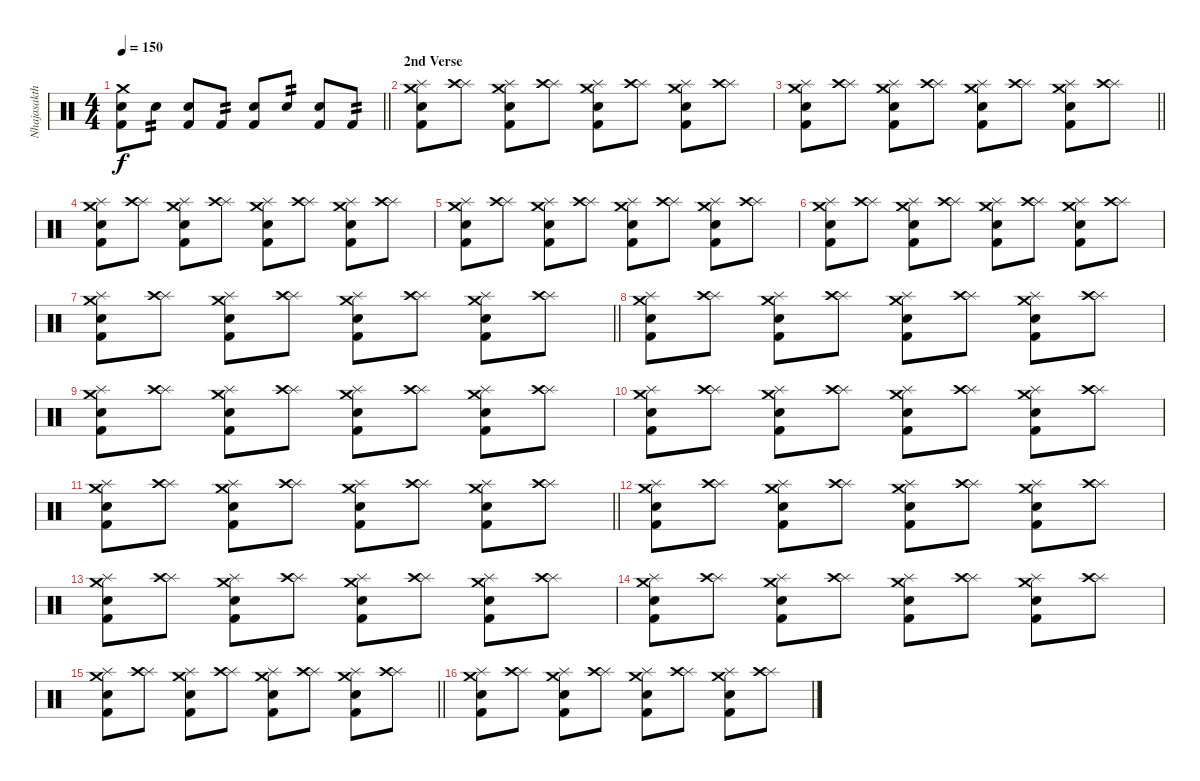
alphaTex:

\track ("Nhajasakthee" "Nhajasakth") {instrument percussion}
\staff {score}
\articulation defaults
\ts (4 4)
\tempo 150
\clef neutral
\barLineRight lightlight
\ks c
("Crash medium (hit)" "Kick (hit) 2" "Electric Snare (hit)").8{dy f} "Electric Snare (hit)".8{tp 2} ("Kick (hit) 2" "Electric Snare (hit)").8 "Kick (hit) 2".8{tp 2} ("Kick (hit) 2" "Electric Snare (hit)").8 "Electric Snare (hit)".8{tp 2} ("Kick (hit) 2" "Electric Snare (hit)").8 "Kick (hit) 2".8{tp 2} |
\section ("" "2nd Verse")
("Splash (hit)" "Crash medium (hit)" "Kick (hit) 2" "Electric Snare (hit)").8 ("Splash (hit)" "Crash high (hit)").8 ("Splash (hit)" "Crash medium (hit)" "Kick (hit) 2" "Electric Snare (hit)").8 ("Splash (hit)" "Crash high (hit)").8 ("Splash (hit)" "Crash medium (hit)" "Kick (hit) 2" "Electric Snare (hit)").8 ("Splash (hit)" "Crash high (hit)").8 ("Splash (hit)" "Crash medium (hit)" "Kick (hit) 2" "Electric Snare (hit)").8 ("Splash (hit)" "Crash high (hit)").8 |
\barLineRight lightlight
("Splash (hit)" "Crash medium (hit)" "Kick (hit) 2" "Electric Snare (hit)").8 ("Splash (hit)" "Crash high (hit)").8 ("Splash (hit)" "Crash medium (hit)" "Kick (hit) 2" "Electric Snare (hit)").8 ("Splash (hit)" "Crash high (hit)").8 ("Splash (hit)" "Crash medium (hit)" "Kick (hit) 2" "Electric Snare (hit)").8 ("Splash (hit)" "Crash high (hit)").8 ("Splash (hit)" "Crash medium (hit)" "Kick (hit) 2" "Electric Snare (hit)").8 ("Splash (hit)" "Crash high (hit)").8 |
("Splash (hit)" "Crash medium (hit)" "Kick (hit) 2" "Electric Snare (hit)").8 ("Splash (hit)" "Crash high (hit)").8 ("Splash (hit)" "Crash medium (hit)" "Kick (hit) 2" "Electric Snare (hit)").8 ("Splash (hit)" "Crash high (hit)").8 ("Splash (hit)" "Crash medium (hit)" "Kick (hit) 2" "Electric Snare (hit)").8 ("Splash (hit)" "Crash high (hit)").8 ("Splash (hit)" "Crash medium (hit)" "Kick (hit) 2" "Electric Snare (hit)").8 ("Splash (hit)" "Crash high (hit)").8 |
("Splash (hit)" "Crash medium (hit)" "Kick (hit) 2" "Electric Snare (hit)").8 ("Splash (hit)" "Crash high (hit)").8 ("Splash (hit)" "Crash medium (hit)" "Kick (hit) 2" "Electric Snare (hit)").8 ("Splash (hit)" "Crash high (hit)").8 ("Splash (hit)" "Crash medium (hit)" "Kick (hit) 2" "Electric Snare (hit)").8 ("Splash (hit)" "Crash high (hit)").8 ("Splash (hit)" "Crash medium (hit)" "Kick (hit) 2" "Electric Snare (hit)").8 ("Splash (hit)" "Crash high (hit)").8 |
("Splash (hit)" "Crash medium (hit)" "Kick (hit) 2" "Electric Snare (hit)").8 ("Splash (hit)" "Crash high (hit)").8 ("Splash (hit)" "Crash medium (hit)" "Kick (hit) 2" "Electric Snare (hit)").8 ("Splash (hit)" "Crash high (hit)").8 ("Splash (hit)" "Crash medium (hit)" "Kick (hit) 2" "Electric Snare (hit)").8 ("Splash (hit)" "Crash high (hit)").8 ("Splash (hit)" "Crash medium (hit)" "Kick (hit) 2" "Electric Snare (hit)").8 ("Splash (hit)" "Crash high (hit)").8 |
\barLineRight lightlight
("Splash (hit)" "Crash medium (hit)" "Kick (hit) 2" "Electric Snare (hit)").8 ("Splash (hit)" "Crash high (hit)").8 ("Splash (hit)" "Crash medium (hit)" "Kick (hit) 2" "Electric Snare (hit)").8 ("Splash (hit)" "Crash high (hit)").8 ("Splash (hit)" "Crash medium (hit)" "Kick (hit) 2" "Electric Snare (hit)").8 ("Splash (hit)" "Crash high (hit)").8 ("Splash (hit)" "Crash medium (hit)" "Kick (hit) 2" "Electric Snare (hit)").8 ("Splash (hit)" "Crash high (hit)").8 |
("Splash (hit)" "Crash medium (hit)" "Kick (hit) 2" "Electric Snare (hit)").8 ("Splash (hit)" "Crash high (hit)").8 ("Splash (hit)" "Crash medium (hit)" "Kick (hit) 2" "Electric Snare (hit)").8 ("Splash (hit)" "Crash high (hit)").8 ("Splash (hit)" "Crash medium (hit)" "Kick (hit) 2" "Electric Snare (hit)").8 ("Splash (hit)" "Crash high (hit)").8 ("Splash (hit)" "Crash medium (hit)" "Kick (hit) 2" "Electric Snare (hit)").8 ("Splash (hit)" "Crash high (hit)").8 |
("Splash (hit)" "Crash medium (hit)" "Kick (hit) 2" "Electric Snare (hit)").8 ("Splash (hit)" "Crash high (hit)").8 ("Splash (hit)" "Crash medium (hit)" "Kick (hit) 2" "Electric Snare (hit)").8 ("Splash (hit)" "Crash high (hit)").8 ("Splash (hit)" "Crash medium (hit)" "Kick (hit) 2" "Electric Snare (hit)").8 ("Splash (hit)" "Crash high (hit)").8 ("Splash (hit)" "Crash medium (hit)" "Kick (hit) 2" "Electric Snare (hit)").8 ("Splash (hit)" "Crash high (hit)").8 |
("Splash (hit)" "Crash medium (hit)" "Kick (hit) 2" "Electric Snare (hit)").8 ("Splash (hit)" "Crash high (hit)").8 ("Splash (hit)" "Crash medium (hit)" "Kick (hit) 2" "Electric Snare (hit)").8 ("Splash (hit)" "Crash high (hit)").8 ("Splash (hit)" "Crash medium (hit)" "Kick (hit) 2" "Electric Snare (hit)").8 ("Splash (hit)" "Crash high (hit)").8 ("Splash (hit)" "Crash medium (hit)" "Kick (hit) 2" "Electric Snare (hit)").8 ("Splash (hit)" "Crash high (hit)").8 |
\barLineRight lightlight
("Splash (hit)" "Crash medium (hit)" "Kick (hit) 2" "Electric Snare (hit)").8 ("Splash (hit)" "Crash high (hit)").8 ("Splash (hit)" "Crash medium (hit)" "Kick (hit) 2" "Electric Snare (hit)").8 ("Splash (hit)" "Crash high (hit)").8 ("Splash (hit)" "Crash medium (hit)" "Kick (hit) 2" "Electric Snare (hit)").8 ("Splash (hit)" "Crash high (hit)").8 ("Splash (hit)" "Crash medium (hit)" "Kick (hit) 2" "Electric Snare (hit)").8 ("Splash (hit)" "Crash high (hit)").8 |
("Splash (hit)" "Crash medium (hit)" "Kick (hit) 2" "Electric Snare (hit)").8 ("Splash (hit)" "Crash high (hit)").8 ("Splash (hit)" "Crash medium (hit)" "Kick (hit) 2" "Electric Snare (hit)").8 ("Splash (hit)" "Crash high (hit)").8 ("Splash (hit)" "Crash medium (hit)" "Kick (hit) 2" "Electric Snare (hit)").8 ("Splash (hit)" "Crash high (hit)").8 ("Splash (hit)" "Crash medium (hit)" "Kick (hit) 2" "Electric Snare (hit)").8 ("Splash (hit)" "Crash high (hit)").8 |
("Splash (hit)" "Crash medium (hit)" "Kick (hit) 2" "Electric Snare (hit)").8 ("Splash (hit)" "Crash high (hit)").8 ("Splash (hit)" "Crash medium (hit)" "Kick (hit) 2" "Electric Snare (hit)").8 ("Splash (hit)" "Crash high (hit)").8 ("Splash (hit)" "Crash medium (hit)" "Kick (hit) 2" "Electric Snare (hit)").8 ("Splash (hit)" "Crash high (hit)").8 ("Splash (hit)" "Crash medium (hit)" "Kick (hit) 2" "Electric Snare (hit)").8 ("Splash (hit)" "Crash high (hit)").8 |
("Splash (hit)" "Crash medium (hit)" "Kick (hit) 2" "Electric Snare (hit)").8 ("Splash (hit)" "Crash high (hit)").8 ("Splash (hit)" "Crash medium (hit)" "Kick (hit) 2" "Electric Snare (hit)").8 ("Splash (hit)" "Crash high (hit)").8 ("Splash (hit)" "Crash medium (hit)" "Kick (hit) 2" "Electric Snare (hit)").8 ("Splash (hit)" "Crash high (hit)").8 ("Splash (hit)" "Crash medium (hit)" "Kick (hit) 2" "Electric Snare (hit)").8 ("Splash (hit)" "Crash high (hit)").8 |
\barLineRight lightlight
("Splash (hit)" "Crash medium (hit)" "Kick (hit) 2" "Electric Snare (hit)").8 ("Splash (hit)" "Crash high (hit)").8 ("Splash (hit)" "Crash medium (hit)" "Kick (hit) 2" "Electric Snare (hit)").8 ("Splash (hit)" "Crash high (hit)").8 ("Splash (hit)" "Crash medium (hit)" "Kick (hit) 2" "Electric Snare (hit)").8 ("Splash (hit)" "Crash high (hit)").8 ("Splash (hit)" "Crash medium (hit)" "Kick (hit) 2" "Electric Snare (hit)").8 ("Splash (hit)" "Crash high (hit)").8 |
("Splash (hit)" "Crash medium (hit)" "Kick (hit) 2" "Electric Snare (hit)").8 ("Splash (hit)" "Crash high (hit)").8 ("Splash (hit)" "Crash medium (hit)" "Kick (hit) 2" "Electric Snare (hit)").8 ("Splash (hit)" "Crash high (hit)").8 ("Splash (hit)" "Crash medium (hit)" "Kick (hit) 2" "Electric Snare (hit)").8 ("Splash (hit)" "Crash high (hit)").8 ("Splash (hit)" "Crash medium (hit)" "Kick (hit) 2" "Electric Snare (hit)").8 ("Splash (hit)" "Crash high (hit)").8
